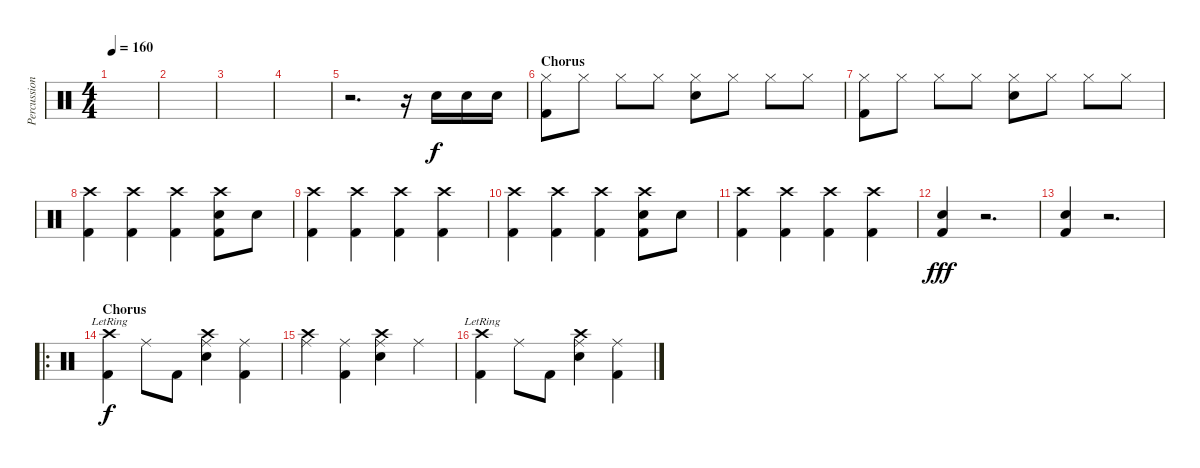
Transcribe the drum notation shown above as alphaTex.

\track ("Percussion" "Percussion") {instrument percussion}
\staff {score}
\articulation defaults
\ts (4 4)
\tempo 160
\clef neutral
\ks c
|
|
|
|
r.2{d} r.16 "Snare (hit) 2".16 "Snare (hit) 2".16 "Snare (hit) 2".16 |
\section ("" "Chorus")
("Hi-Hat (closed)" "Kick (hit) 2").8{dy f volume 14} "Hi-Hat (closed)".8 "Hi-Hat (closed)".8 "Hi-Hat (closed)".8 ("Hi-Hat (closed)" "Electric Snare (hit)").8 "Hi-Hat (closed)".8 "Hi-Hat (closed)".8 "Hi-Hat (closed)".8 |
("Hi-Hat (closed)" "Kick (hit) 2").8{volume 16} "Hi-Hat (closed)".8 "Hi-Hat (closed)".8 "Hi-Hat (closed)".8 ("Hi-Hat (closed)" "Electric Snare (hit)").8 "Hi-Hat (closed)".8 "Hi-Hat (closed)".8 "Hi-Hat (closed)".8 |
("Crash high (hit)" "Kick (hit) 2").4{volume 13} ("Crash high (hit)" "Kick (hit) 2").4 ("Crash high (hit)" "Kick (hit) 2").4 ("Crash high (hit)" "Electric Snare (hit)" "Kick (hit) 2").8 "Electric Snare (hit)".8 |
("Crash high (hit)" "Kick (hit) 2").4 ("Crash high (hit)" "Kick (hit) 2").4 ("Crash high (hit)" "Kick (hit) 2").4 ("Crash high (hit)" "Kick (hit) 2").4 |
("Crash high (hit)" "Kick (hit) 2").4{volume 15} ("Crash high (hit)" "Kick (hit) 2").4 ("Crash high (hit)" "Kick (hit) 2").4 ("Crash high (hit)" "Electric Snare (hit)" "Kick (hit) 2").8 "Electric Snare (hit)".8 |
("Crash high (hit)" "Kick (hit) 2").4 ("Crash high (hit)" "Kick (hit) 2").4 ("Crash high (hit)" "Kick (hit) 2").4 ("Crash high (hit)" "Kick (hit) 2").4 |
("Electric Snare (hit)" "Kick (hit) 2").4{dy fff} r.2{d} |
("Electric Snare (hit)" "Kick (hit) 2").4 r.2{d} |
\ro
\section ("" "Chorus")
("Crash high (hit)"{lr} "Kick (hit) 2").4{dy f} "Ride (middle)".8 "Kick (hit) 2".8 ("Crash high (hit)" "Ride (middle)" "Electric Snare (hit)").4 ("Ride (middle)" "Kick (hit) 2").4 |
("Crash high (hit)" "Ride (middle)").4 ("Ride (middle)" "Kick (hit) 2").4 ("Crash high (hit)" "Ride (middle)" "Electric Snare (hit)").4 "Ride (middle)".4 |
("Crash high (hit)"{lr} "Kick (hit) 2").4 "Ride (middle)".8 "Kick (hit) 2".8 ("Crash high (hit)" "Ride (middle)" "Electric Snare (hit)").4 ("Ride (middle)" "Kick (hit) 2").4
